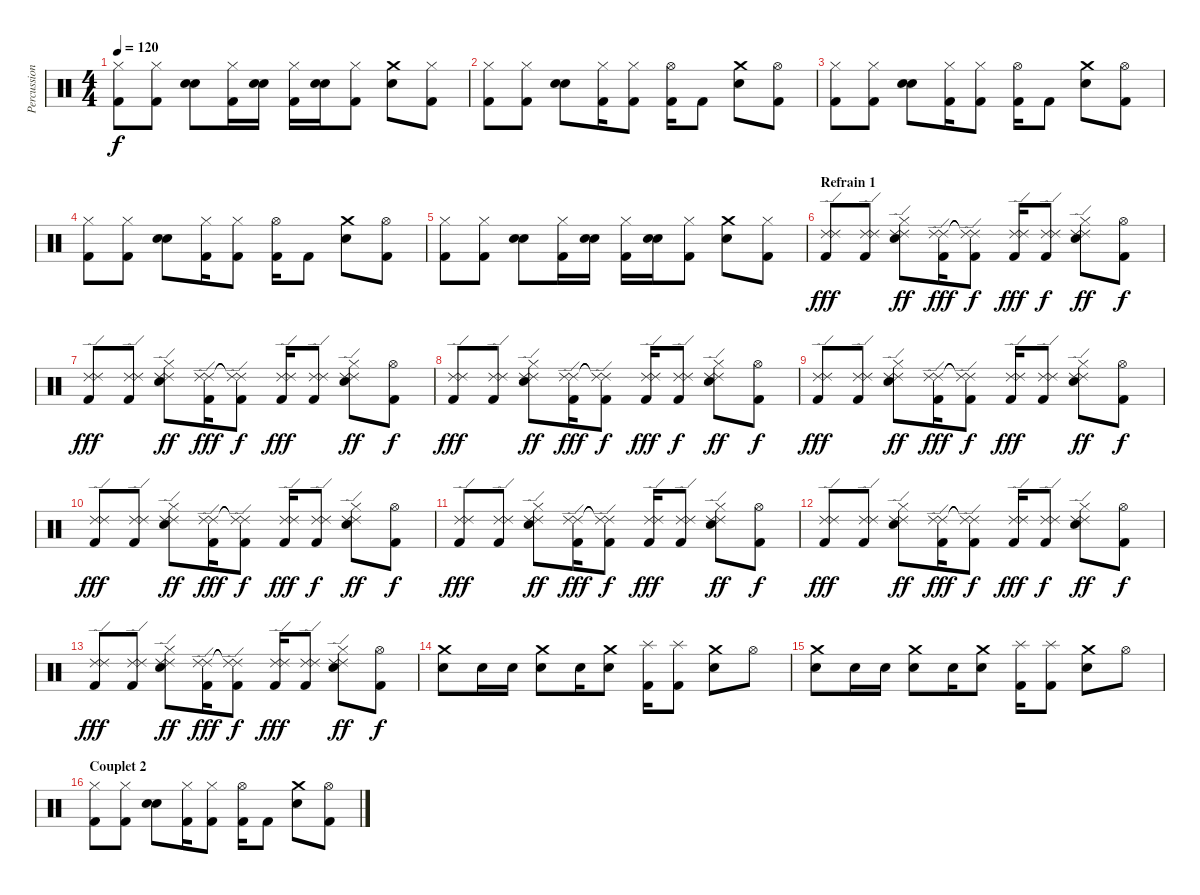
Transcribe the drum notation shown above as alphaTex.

\track ("Percussions" "Percussion") {instrument percussion}
\staff {score}
\articulation defaults
\ts (4 4)
\tempo 120
\clef neutral
\ks c
("Hi-Hat (closed)" "Kick (hit) 2").8{dy f} ("Hi-Hat (closed)" "Kick (hit) 2").8 ("Snare (hit) 2" "Snare (hit) 2").8 ("Hi-Hat (closed)" "Kick (hit) 2").16 ("Snare (hit) 2" "Snare (hit) 2").16 ("Hi-Hat (closed)" "Kick (hit) 2").16 ("Snare (hit) 2" "Snare (hit) 2").16 ("Hi-Hat (closed)" "Kick (hit) 2").8 ("Crash medium (hit)" "Snare (hit) 2").8 ("Hi-Hat (closed)" "Kick (hit) 2").8 |
("Hi-Hat (closed)" "Kick (hit) 2").8 ("Hi-Hat (closed)" "Kick (hit) 2").8 ("Snare (hit) 2" "Snare (hit) 2").8 ("Hi-Hat (closed)" "Kick (hit) 2").16 ("Hi-Hat (closed)" "Kick (hit) 2").8 ("Hi-Hat (open)" "Kick (hit) 2").16 "Kick (hit) 2".8 ("Crash medium (hit)" "Snare (hit) 2").8 ("Hi-Hat (open)" "Kick (hit) 2").8 |
("Hi-Hat (closed)" "Kick (hit) 2").8 ("Hi-Hat (closed)" "Kick (hit) 2").8 ("Snare (hit) 2" "Snare (hit) 2").8 ("Hi-Hat (closed)" "Kick (hit) 2").16 ("Hi-Hat (closed)" "Kick (hit) 2").8 ("Hi-Hat (open)" "Kick (hit) 2").16 "Kick (hit) 2".8 ("Crash medium (hit)" "Snare (hit) 2").8 ("Hi-Hat (open)" "Kick (hit) 2").8 |
("Hi-Hat (closed)" "Kick (hit) 2").8 ("Hi-Hat (closed)" "Kick (hit) 2").8 ("Snare (hit) 2" "Snare (hit) 2").8 ("Hi-Hat (closed)" "Kick (hit) 2").16 ("Hi-Hat (closed)" "Kick (hit) 2").8 ("Hi-Hat (open)" "Kick (hit) 2").16 "Kick (hit) 2".8 ("Crash medium (hit)" "Snare (hit) 2").8 ("Hi-Hat (open)" "Kick (hit) 2").8 |
("Hi-Hat (closed)" "Kick (hit) 2").8 ("Hi-Hat (closed)" "Kick (hit) 2").8 ("Snare (hit) 2" "Snare (hit) 2").8 ("Hi-Hat (closed)" "Kick (hit) 2").16 ("Snare (hit) 2" "Snare (hit) 2").16 ("Hi-Hat (closed)" "Kick (hit) 2").16 ("Snare (hit) 2" "Snare (hit) 2").16 ("Hi-Hat (closed)" "Kick (hit) 2").8 ("Crash medium (hit)" "Snare (hit) 2").8 ("Hi-Hat (closed)" "Kick (hit) 2").8 |
\section ("" "Refrain 1")
("Ride (edge) 2" "Ride (edge) 2" "Kick (hit) 2").8{dy fff} ("Ride (edge) 2" "Ride (edge) 2" "Kick (hit) 2").8 ("Hi-Hat (closed)" "Ride (edge) 2" "Ride (edge) 2" "Snare (hit) 2").8{dy ff} ("Ride (edge) 2" "Ride (edge) 2" "Kick (hit) 2").16{dy fff} ("Ride (edge) 2"{t} "Ride (edge) 2"{t} "Kick (hit) 2").8{dy f} ("Ride (edge) 2" "Ride (edge) 2" "Kick (hit) 2").16{dy fff} ("Ride (edge) 2" "Ride (edge) 2" "Kick (hit) 2").8{dy f} ("Hi-Hat (closed)" "Ride (edge) 2" "Ride (edge) 2" "Snare (hit) 2").8{dy ff} ("Hi-Hat (open)" "Kick (hit) 2").8{dy f} |
("Ride (edge) 2" "Ride (edge) 2" "Kick (hit) 2").8{dy fff} ("Ride (edge) 2" "Ride (edge) 2" "Kick (hit) 2").8 ("Hi-Hat (closed)" "Ride (edge) 2" "Ride (edge) 2" "Snare (hit) 2").8{dy ff} ("Ride (edge) 2" "Ride (edge) 2" "Kick (hit) 2").16{dy fff} ("Ride (edge) 2"{t} "Ride (edge) 2"{t} "Kick (hit) 2").8{dy f} ("Ride (edge) 2" "Ride (edge) 2" "Kick (hit) 2").16{dy fff} ("Ride (edge) 2" "Ride (edge) 2" "Kick (hit) 2").8 ("Hi-Hat (closed)" "Ride (edge) 2" "Ride (edge) 2" "Snare (hit) 2").8{dy ff} ("Hi-Hat (open)" "Kick (hit) 2").8{dy f} |
("Ride (edge) 2" "Ride (edge) 2" "Kick (hit) 2").8{dy fff} ("Ride (edge) 2" "Ride (edge) 2" "Kick (hit) 2").8 ("Hi-Hat (closed)" "Ride (edge) 2" "Ride (edge) 2" "Snare (hit) 2").8{dy ff} ("Ride (edge) 2" "Ride (edge) 2" "Kick (hit) 2").16{dy fff} ("Ride (edge) 2"{t} "Ride (edge) 2"{t} "Kick (hit) 2").8{dy f} ("Ride (edge) 2" "Ride (edge) 2" "Kick (hit) 2").16{dy fff} ("Ride (edge) 2" "Ride (edge) 2" "Kick (hit) 2").8{dy f} ("Hi-Hat (closed)" "Ride (edge) 2" "Ride (edge) 2" "Snare (hit) 2").8{dy ff} ("Hi-Hat (open)" "Kick (hit) 2").8{dy f} |
("Ride (edge) 2" "Ride (edge) 2" "Kick (hit) 2").8{dy fff} ("Ride (edge) 2" "Ride (edge) 2" "Kick (hit) 2").8 ("Hi-Hat (closed)" "Ride (edge) 2" "Ride (edge) 2" "Snare (hit) 2").8{dy ff} ("Ride (edge) 2" "Ride (edge) 2" "Kick (hit) 2").16{dy fff} ("Ride (edge) 2"{t} "Ride (edge) 2"{t} "Kick (hit) 2").8{dy f} ("Ride (edge) 2" "Ride (edge) 2" "Kick (hit) 2").16{dy fff} ("Ride (edge) 2" "Ride (edge) 2" "Kick (hit) 2").8 ("Hi-Hat (closed)" "Ride (edge) 2" "Ride (edge) 2" "Snare (hit) 2").8{dy ff} ("Hi-Hat (open)" "Kick (hit) 2").8{dy f} |
("Ride (edge) 2" "Ride (edge) 2" "Kick (hit) 2").8{dy fff} ("Ride (edge) 2" "Ride (edge) 2" "Kick (hit) 2").8 ("Hi-Hat (closed)" "Ride (edge) 2" "Ride (edge) 2" "Snare (hit) 2").8{dy ff} ("Ride (edge) 2" "Ride (edge) 2" "Kick (hit) 2").16{dy fff} ("Ride (edge) 2"{t} "Ride (edge) 2"{t} "Kick (hit) 2").8{dy f} ("Ride (edge) 2" "Ride (edge) 2" "Kick (hit) 2").16{dy fff} ("Ride (edge) 2" "Ride (edge) 2" "Kick (hit) 2").8{dy f} ("Hi-Hat (closed)" "Ride (edge) 2" "Ride (edge) 2" "Snare (hit) 2").8{dy ff} ("Hi-Hat (open)" "Kick (hit) 2").8{dy f} |
("Ride (edge) 2" "Ride (edge) 2" "Kick (hit) 2").8{dy fff} ("Ride (edge) 2" "Ride (edge) 2" "Kick (hit) 2").8 ("Hi-Hat (closed)" "Ride (edge) 2" "Ride (edge) 2" "Snare (hit) 2").8{dy ff} ("Ride (edge) 2" "Ride (edge) 2" "Kick (hit) 2").16{dy fff} ("Ride (edge) 2"{t} "Ride (edge) 2"{t} "Kick (hit) 2").8{dy f} ("Ride (edge) 2" "Ride (edge) 2" "Kick (hit) 2").16{dy fff} ("Ride (edge) 2" "Ride (edge) 2" "Kick (hit) 2").8 ("Hi-Hat (closed)" "Ride (edge) 2" "Ride (edge) 2" "Snare (hit) 2").8{dy ff} ("Hi-Hat (open)" "Kick (hit) 2").8{dy f} |
("Ride (edge) 2" "Ride (edge) 2" "Kick (hit) 2").8{dy fff} ("Ride (edge) 2" "Ride (edge) 2" "Kick (hit) 2").8 ("Hi-Hat (closed)" "Ride (edge) 2" "Ride (edge) 2" "Snare (hit) 2").8{dy ff} ("Ride (edge) 2" "Ride (edge) 2" "Kick (hit) 2").16{dy fff} ("Ride (edge) 2"{t} "Ride (edge) 2"{t} "Kick (hit) 2").8{dy f} ("Ride (edge) 2" "Ride (edge) 2" "Kick (hit) 2").16{dy fff} ("Ride (edge) 2" "Ride (edge) 2" "Kick (hit) 2").8{dy f} ("Hi-Hat (closed)" "Ride (edge) 2" "Ride (edge) 2" "Snare (hit) 2").8{dy ff} ("Hi-Hat (open)" "Kick (hit) 2").8{dy f} |
("Ride (edge) 2" "Ride (edge) 2" "Kick (hit) 2").8{dy fff} ("Ride (edge) 2" "Ride (edge) 2" "Kick (hit) 2").8 ("Hi-Hat (closed)" "Ride (edge) 2" "Ride (edge) 2" "Snare (hit) 2").8{dy ff} ("Ride (edge) 2" "Ride (edge) 2" "Kick (hit) 2").16{dy fff} ("Ride (edge) 2"{t} "Ride (edge) 2"{t} "Kick (hit) 2").8{dy f} ("Ride (edge) 2" "Ride (edge) 2" "Kick (hit) 2").16{dy fff} ("Ride (edge) 2" "Ride (edge) 2" "Kick (hit) 2").8 ("Hi-Hat (closed)" "Ride (edge) 2" "Ride (edge) 2" "Snare (hit) 2").8{dy ff} ("Hi-Hat (open)" "Kick (hit) 2").8{dy f} |
("Crash medium (hit)" "Snare (hit) 2").8 "Snare (hit) 2".16 "Snare (hit) 2".16 ("Crash medium (hit)" "Snare (hit) 2").8 "Snare (hit) 2".16 ("Crash medium (hit)" "Snare (hit) 2").8 ("Splash (hit)" "Kick (hit) 2").16 ("Splash (hit)" "Kick (hit) 2").8 ("Crash medium (hit)" "Snare (hit) 2").8 "Hi-Hat (open)".8 |
("Crash medium (hit)" "Snare (hit) 2").8 "Snare (hit) 2".16 "Snare (hit) 2".16 ("Crash medium (hit)" "Snare (hit) 2").8 "Snare (hit) 2".16 ("Crash medium (hit)" "Snare (hit) 2").8 ("Splash (hit)" "Kick (hit) 2").16 ("Splash (hit)" "Kick (hit) 2").8 ("Crash medium (hit)" "Snare (hit) 2").8 "Hi-Hat (open)".8 |
\section ("" "Couplet 2")
("Hi-Hat (closed)" "Kick (hit) 2").8 ("Hi-Hat (closed)" "Kick (hit) 2").8 ("Snare (hit) 2" "Snare (hit) 2").8 ("Hi-Hat (closed)" "Kick (hit) 2").16 ("Hi-Hat (closed)" "Kick (hit) 2").8 ("Hi-Hat (open)" "Kick (hit) 2").16 "Kick (hit) 2".8 ("Crash medium (hit)" "Snare (hit) 2").8 ("Hi-Hat (open)" "Kick (hit) 2").8
